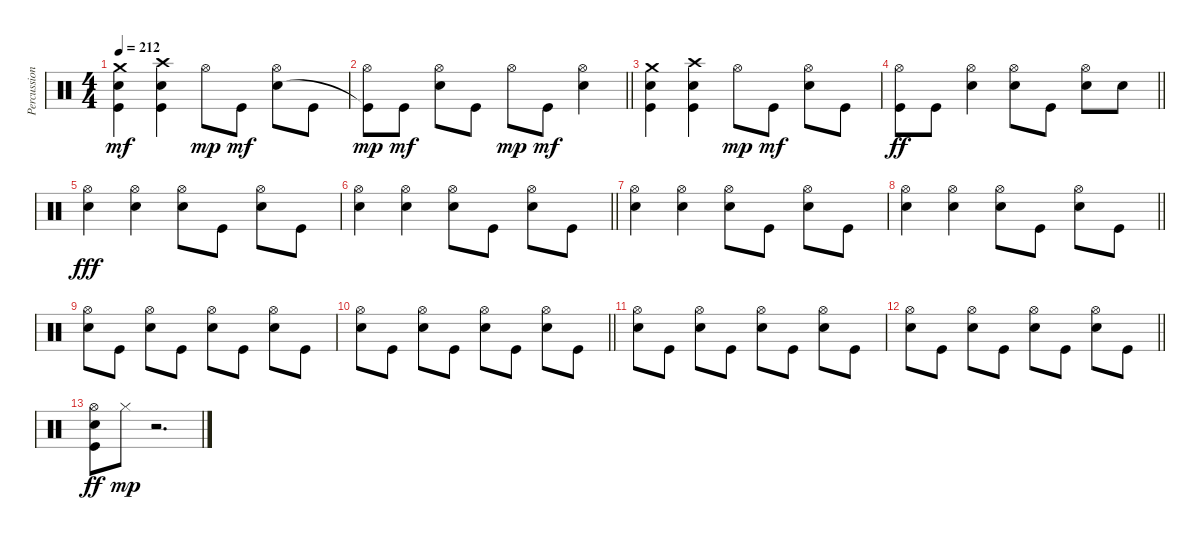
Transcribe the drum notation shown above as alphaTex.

\track ("Percussion" "Percussion") {instrument percussion}
\staff {score}
\articulation defaults
\ts (4 4)
\tempo 212
\clef neutral
\ks c
("Crash medium (hit)" "Snare (hit) 2" "Kick (hit)").4{dy mf} ("Crash high (hit)" "Snare (hit) 2" "Kick (hit)").4 "Hi-Hat (open)".8{dy mp} "Kick (hit)".8{dy mf} ("Hi-Hat (open)" "Snare (hit) 2").8 "Kick (hit)".8 |
\barLineRight lightlight
("Hi-Hat (open)" "Kick (hit)"{t}).8{dy mp} "Kick (hit)".8{dy mf} ("Hi-Hat (open)" "Snare (hit) 2").8 "Kick (hit)".8 "Hi-Hat (open)".8{dy mp} "Kick (hit)".8{dy mf} ("Hi-Hat (open)" "Snare (hit) 2").4 |
("Crash medium (hit)" "Snare (hit) 2" "Kick (hit)").4 ("Crash high (hit)" "Snare (hit) 2" "Kick (hit)").4 "Hi-Hat (open)".8{dy mp} "Kick (hit)".8{dy mf} ("Hi-Hat (open)" "Snare (hit) 2").8 "Kick (hit)".8 |
\barLineRight lightlight
("Hi-Hat (open)" "Kick (hit)").8{dy ff} "Kick (hit)".8 ("Hi-Hat (open)" "Snare (hit) 2").4 ("Hi-Hat (open)" "Snare (hit) 2").8 "Kick (hit)".8 ("Hi-Hat (open)" "Snare (hit) 2").8 "Snare (hit) 2".8 |
("Hi-Hat (open)" "Snare (hit) 2").4{dy fff} ("Hi-Hat (open)" "Snare (hit) 2").4 ("Hi-Hat (open)" "Snare (hit) 2").8 "Kick (hit)".8 ("Hi-Hat (open)" "Snare (hit) 2").8 "Kick (hit)".8 |
\barLineRight lightlight
("Hi-Hat (open)" "Snare (hit) 2").4 ("Hi-Hat (open)" "Snare (hit) 2").4 ("Hi-Hat (open)" "Snare (hit) 2").8 "Kick (hit)".8 ("Hi-Hat (open)" "Snare (hit) 2").8 "Kick (hit)".8 |
("Hi-Hat (open)" "Snare (hit) 2").4 ("Hi-Hat (open)" "Snare (hit) 2").4 ("Hi-Hat (open)" "Snare (hit) 2").8 "Kick (hit)".8 ("Hi-Hat (open)" "Snare (hit) 2").8 "Kick (hit)".8 |
\barLineRight lightlight
("Hi-Hat (open)" "Snare (hit) 2").4 ("Hi-Hat (open)" "Snare (hit) 2").4 ("Hi-Hat (open)" "Snare (hit) 2").8 "Kick (hit)".8 ("Hi-Hat (open)" "Snare (hit) 2").8 "Kick (hit)".8 |
("Hi-Hat (open)" "Snare (hit) 2").8 "Kick (hit)".8 ("Hi-Hat (open)" "Snare (hit) 2").8 "Kick (hit)".8 ("Hi-Hat (open)" "Snare (hit) 2").8 "Kick (hit)".8 ("Hi-Hat (open)" "Snare (hit) 2").8 "Kick (hit)".8 |
\barLineRight lightlight
("Hi-Hat (open)" "Snare (hit) 2").8 "Kick (hit)".8 ("Hi-Hat (open)" "Snare (hit) 2").8 "Kick (hit)".8 ("Hi-Hat (open)" "Snare (hit) 2").8 "Kick (hit)".8 ("Hi-Hat (open)" "Snare (hit) 2").8 "Kick (hit)".8 |
("Hi-Hat (open)" "Snare (hit) 2").8 "Kick (hit)".8 ("Hi-Hat (open)" "Snare (hit) 2").8 "Kick (hit)".8 ("Hi-Hat (open)" "Snare (hit) 2").8 "Kick (hit)".8 ("Hi-Hat (open)" "Snare (hit) 2").8 "Kick (hit)".8 |
\barLineRight lightlight
("Hi-Hat (open)" "Snare (hit) 2").8 "Kick (hit)".8 ("Hi-Hat (open)" "Snare (hit) 2").8 "Kick (hit)".8 ("Hi-Hat (open)" "Snare (hit) 2").8 "Kick (hit)".8 ("Hi-Hat (open)" "Snare (hit) 2").8 "Kick (hit)".8 |
("Hi-Hat (open)" "Snare (hit) 2" "Kick (hit)").8{dy ff} "Hi-Hat (closed)".8{dy mp} r.2{d}
